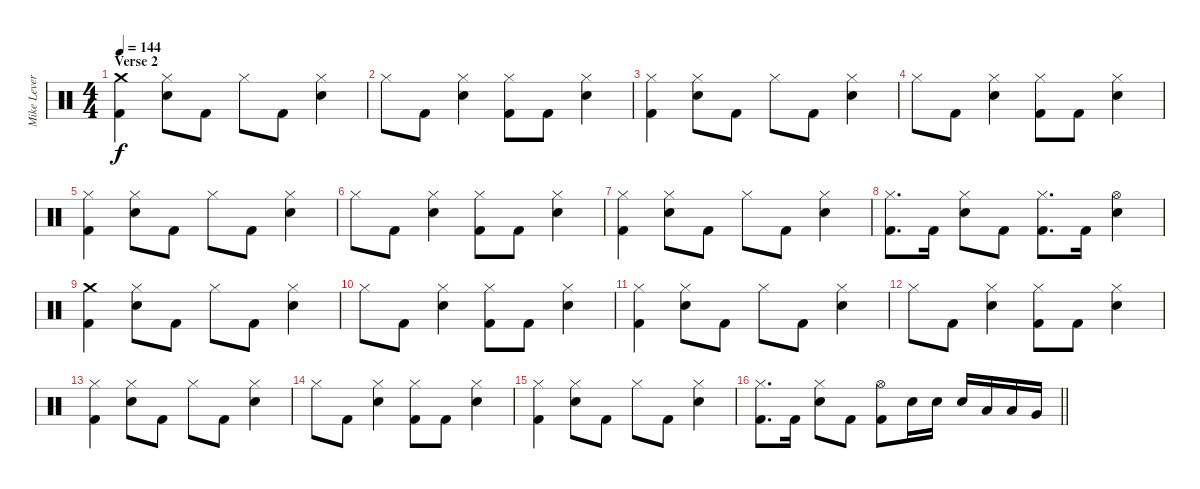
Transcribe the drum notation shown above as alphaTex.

\track ("Mike Leverence - Drums" "Mike Lever") {instrument percussion}
\staff {score}
\articulation defaults
\ts (4 4)
\section ("" "Verse 2")
\tempo 144
\clef neutral
\ks c
("Crash medium (hit)" "Kick (hit) 2").4{dy f} ("Hi-Hat (closed)" "Electric Snare (hit)").8 "Kick (hit) 2".8 "Hi-Hat (closed)".8 "Kick (hit) 2".8 ("Hi-Hat (closed)" "Electric Snare (hit)").4 |
"Hi-Hat (closed)".8 "Kick (hit) 2".8 ("Hi-Hat (closed)" "Electric Snare (hit)").4 ("Hi-Hat (closed)" "Kick (hit) 2").8 "Kick (hit) 2".8 ("Hi-Hat (closed)" "Electric Snare (hit)").4 |
("Hi-Hat (closed)" "Kick (hit) 2").4 ("Hi-Hat (closed)" "Electric Snare (hit)").8 "Kick (hit) 2".8 "Hi-Hat (closed)".8 "Kick (hit) 2".8 ("Hi-Hat (closed)" "Electric Snare (hit)").4 |
"Hi-Hat (closed)".8 "Kick (hit) 2".8 ("Hi-Hat (closed)" "Electric Snare (hit)").4 ("Hi-Hat (closed)" "Kick (hit) 2").8 "Kick (hit) 2".8 ("Hi-Hat (closed)" "Electric Snare (hit)").4 |
("Hi-Hat (closed)" "Kick (hit) 2").4 ("Hi-Hat (closed)" "Electric Snare (hit)").8 "Kick (hit) 2".8 "Hi-Hat (closed)".8 "Kick (hit) 2".8 ("Hi-Hat (closed)" "Electric Snare (hit)").4 |
"Hi-Hat (closed)".8 "Kick (hit) 2".8 ("Hi-Hat (closed)" "Electric Snare (hit)").4 ("Hi-Hat (closed)" "Kick (hit) 2").8 "Kick (hit) 2".8 ("Hi-Hat (closed)" "Electric Snare (hit)").4 |
("Hi-Hat (closed)" "Kick (hit) 2").4 ("Hi-Hat (closed)" "Electric Snare (hit)").8 "Kick (hit) 2".8 "Hi-Hat (closed)".8 "Kick (hit) 2".8 ("Hi-Hat (closed)" "Electric Snare (hit)").4 |
("Hi-Hat (closed)" "Kick (hit) 2").8{d} "Kick (hit) 2".16 ("Hi-Hat (closed)" "Electric Snare (hit)").8 "Kick (hit) 2".8 ("Hi-Hat (closed)" "Kick (hit) 2").8{d} "Kick (hit) 2".16 ("Hi-Hat (open)" "Electric Snare (hit)").4 |
("Crash medium (hit)" "Kick (hit) 2").4 ("Hi-Hat (closed)" "Electric Snare (hit)").8 "Kick (hit) 2".8 "Hi-Hat (closed)".8 "Kick (hit) 2".8 ("Hi-Hat (closed)" "Electric Snare (hit)").4 |
"Hi-Hat (closed)".8 "Kick (hit) 2".8 ("Hi-Hat (closed)" "Electric Snare (hit)").4 ("Hi-Hat (closed)" "Kick (hit) 2").8 "Kick (hit) 2".8 ("Hi-Hat (closed)" "Electric Snare (hit)").4 |
("Hi-Hat (closed)" "Kick (hit) 2").4 ("Hi-Hat (closed)" "Electric Snare (hit)").8 "Kick (hit) 2".8 "Hi-Hat (closed)".8 "Kick (hit) 2".8 ("Hi-Hat (closed)" "Electric Snare (hit)").4 |
"Hi-Hat (closed)".8 "Kick (hit) 2".8 ("Hi-Hat (closed)" "Electric Snare (hit)").4 ("Hi-Hat (closed)" "Kick (hit) 2").8 "Kick (hit) 2".8 ("Hi-Hat (closed)" "Electric Snare (hit)").4 |
("Hi-Hat (closed)" "Kick (hit) 2").4 ("Hi-Hat (closed)" "Electric Snare (hit)").8 "Kick (hit) 2".8 "Hi-Hat (closed)".8 "Kick (hit) 2".8 ("Hi-Hat (closed)" "Electric Snare (hit)").4 |
"Hi-Hat (closed)".8 "Kick (hit) 2".8 ("Hi-Hat (closed)" "Electric Snare (hit)").4 ("Hi-Hat (closed)" "Kick (hit) 2").8 "Kick (hit) 2".8 ("Hi-Hat (closed)" "Electric Snare (hit)").4 |
("Hi-Hat (closed)" "Kick (hit) 2").4 ("Hi-Hat (closed)" "Electric Snare (hit)").8 "Kick (hit) 2".8 "Hi-Hat (closed)".8 "Kick (hit) 2".8 ("Hi-Hat (closed)" "Electric Snare (hit)").4 |
\barLineRight lightlight
("Hi-Hat (closed)" "Kick (hit) 2").8{d} "Kick (hit) 2".16 ("Hi-Hat (closed)" "Electric Snare (hit)").8 "Kick (hit) 2".8 ("Hi-Hat (open)" "Kick (hit) 2").8 "Electric Snare (hit)".16 "Electric Snare (hit)".16 "Electric Snare (hit)".16 "Low Tom (hit)".16 "Low Tom (hit)".16 "Very Low Tom (hit)".16
